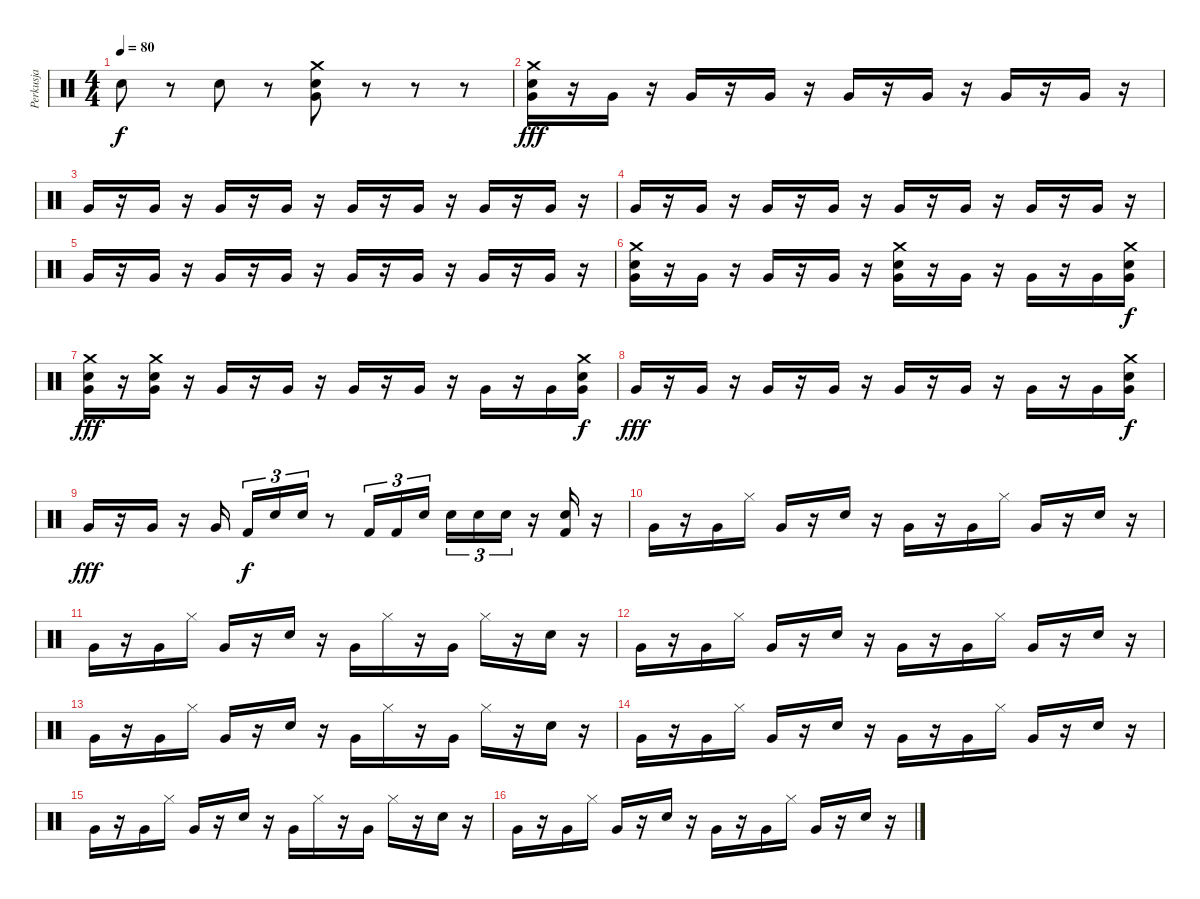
\track ("Perkusja" "Perkusja") {instrument percussion}
\staff {score}
\articulation defaults
\ts (4 4)
\tempo 80
\clef neutral
\ks c "Snare (hit) 2".8{dy f}
r.8 "Snare (hit) 2".8 r.8 ("Snare (hit) 2" "Very Low Tom (hit)" "Crash medium (hit)").8 r.8 r.8 r.8 |
("Snare (hit) 2" "Very Low Tom (hit)" "Crash medium (hit)").16{dy fff} r.16 "Very Low Tom (hit)".16 r.16 "Very Low Tom (hit)".16 r.16 "Very Low Tom (hit)".16 r.16 "Very Low Tom (hit)".16 r.16 "Very Low Tom (hit)".16 r.16 "Very Low Tom (hit)".16 r.16 "Very Low Tom (hit)".16 r.16 |
"Very Low Tom (hit)".16 r.16 "Very Low Tom (hit)".16 r.16 "Very Low Tom (hit)".16 r.16 "Very Low Tom (hit)".16 r.16 "Very Low Tom (hit)".16 r.16 "Very Low Tom (hit)".16 r.16 "Very Low Tom (hit)".16 r.16 "Very Low Tom (hit)".16 r.16 |
"Very Low Tom (hit)".16 r.16 "Very Low Tom (hit)".16 r.16 "Very Low Tom (hit)".16 r.16 "Very Low Tom (hit)".16 r.16 "Very Low Tom (hit)".16 r.16 "Very Low Tom (hit)".16 r.16 "Very Low Tom (hit)".16 r.16 "Very Low Tom (hit)".16 r.16 |
"Very Low Tom (hit)".16 r.16 "Very Low Tom (hit)".16 r.16 "Very Low Tom (hit)".16 r.16 "Very Low Tom (hit)".16 r.16 "Very Low Tom (hit)".16 r.16 "Very Low Tom (hit)".16 r.16 "Very Low Tom (hit)".16 r.16 "Very Low Tom (hit)".16 r.16 |
("Snare (hit) 2" "Very Low Tom (hit)" "Crash medium (hit)").16 r.16 "Very Low Tom (hit)".16 r.16 "Very Low Tom (hit)".16 r.16 "Very Low Tom (hit)".16 r.16 ("Snare (hit) 2" "Very Low Tom (hit)" "Crash medium (hit)").16 r.16 "Very Low Tom (hit)".16 r.16 "Very Low Tom (hit)".16 r.16 "Very Low Tom (hit)".16 ("Snare (hit) 2" "Very Low Tom (hit)" "Crash medium (hit)").16{dy f} |
("Snare (hit) 2" "Very Low Tom (hit)" "Crash medium (hit)").16{dy fff} r.16 ("Snare (hit) 2" "Very Low Tom (hit)" "Crash medium (hit)").16 r.16 "Very Low Tom (hit)".16 r.16 "Very Low Tom (hit)".16 r.16 "Very Low Tom (hit)".16 r.16 "Very Low Tom (hit)".16 r.16 "Very Low Tom (hit)".16 r.16 "Very Low Tom (hit)".16 ("Snare (hit) 2" "Very Low Tom (hit)" "Crash medium (hit)").16{dy f} |
"Very Low Tom (hit)".16{dy fff} r.16 "Very Low Tom (hit)".16 r.16 "Very Low Tom (hit)".16 r.16 "Very Low Tom (hit)".16 r.16 "Very Low Tom (hit)".16 r.16 "Very Low Tom (hit)".16 r.16 "Very Low Tom (hit)".16 r.16 "Very Low Tom (hit)".16 ("Snare (hit) 2" "Very Low Tom (hit)" "Crash medium (hit)").16{dy f} |
"Very Low Tom (hit)".16{dy fff} r.16 "Very Low Tom (hit)".16 r.16 "Very Low Tom (hit)".16 "Kick (hit) 2".16{tu (3 2) dy f} "Snare (hit) 2".16{tu (3 2)} "Snare (hit) 2".16{tu (3 2)} r.8 "Kick (hit) 2".16{tu (3 2)} "Kick (hit) 2".16{tu (3 2)} "Snare (hit) 2".16{tu (3 2)} "Snare (hit) 2".16{tu (3 2)} "Snare (hit) 2".16{tu (3 2)} "Snare (hit) 2".16{tu (3 2)} r.16 ("Kick (hit) 2" "Snare (hit) 2").16 r.16 |
"Very Low Tom (hit)".16 r.16 "Very Low Tom (hit)".16 "Hi-Hat (closed)".16 "Very Low Tom (hit)".16 r.16 "Snare (hit) 2".16 r.16 "Very Low Tom (hit)".16 r.16 "Very Low Tom (hit)".16 "Hi-Hat (closed)".16 "Very Low Tom (hit)".16 r.16 "Snare (hit) 2".16 r.16 |
"Very Low Tom (hit)".16 r.16 "Very Low Tom (hit)".16 "Hi-Hat (closed)".16 "Very Low Tom (hit)".16 r.16 "Snare (hit) 2".16 r.16 "Very Low Tom (hit)".16 "Hi-Hat (closed)".16 r.16 "Very Low Tom (hit)".16 "Hi-Hat (closed)".16 r.16 "Snare (hit) 2".16 r.16 |
"Very Low Tom (hit)".16 r.16 "Very Low Tom (hit)".16 "Hi-Hat (closed)".16 "Very Low Tom (hit)".16 r.16 "Snare (hit) 2".16 r.16 "Very Low Tom (hit)".16 r.16 "Very Low Tom (hit)".16 "Hi-Hat (closed)".16 "Very Low Tom (hit)".16 r.16 "Snare (hit) 2".16 r.16 |
"Very Low Tom (hit)".16 r.16 "Very Low Tom (hit)".16 "Hi-Hat (closed)".16 "Very Low Tom (hit)".16 r.16 "Snare (hit) 2".16 r.16 "Very Low Tom (hit)".16 "Hi-Hat (closed)".16 r.16 "Very Low Tom (hit)".16 "Hi-Hat (closed)".16 r.16 "Snare (hit) 2".16 r.16 |
"Very Low Tom (hit)".16 r.16 "Very Low Tom (hit)".16 "Hi-Hat (closed)".16 "Very Low Tom (hit)".16 r.16 "Snare (hit) 2".16 r.16 "Very Low Tom (hit)".16 r.16 "Very Low Tom (hit)".16 "Hi-Hat (closed)".16 "Very Low Tom (hit)".16 r.16 "Snare (hit) 2".16 r.16 |
"Very Low Tom (hit)".16 r.16 "Very Low Tom (hit)".16 "Hi-Hat (closed)".16 "Very Low Tom (hit)".16 r.16 "Snare (hit) 2".16 r.16 "Very Low Tom (hit)".16 "Hi-Hat (closed)".16 r.16 "Very Low Tom (hit)".16 "Hi-Hat (closed)".16 r.16 "Snare (hit) 2".16 r.16 |
"Very Low Tom (hit)".16 r.16 "Very Low Tom (hit)".16 "Hi-Hat (closed)".16 "Very Low Tom (hit)".16 r.16 "Snare (hit) 2".16 r.16 "Very Low Tom (hit)".16 r.16 "Very Low Tom (hit)".16 "Hi-Hat (closed)".16 "Very Low Tom (hit)".16 r.16 "Snare (hit) 2".16 r.16
